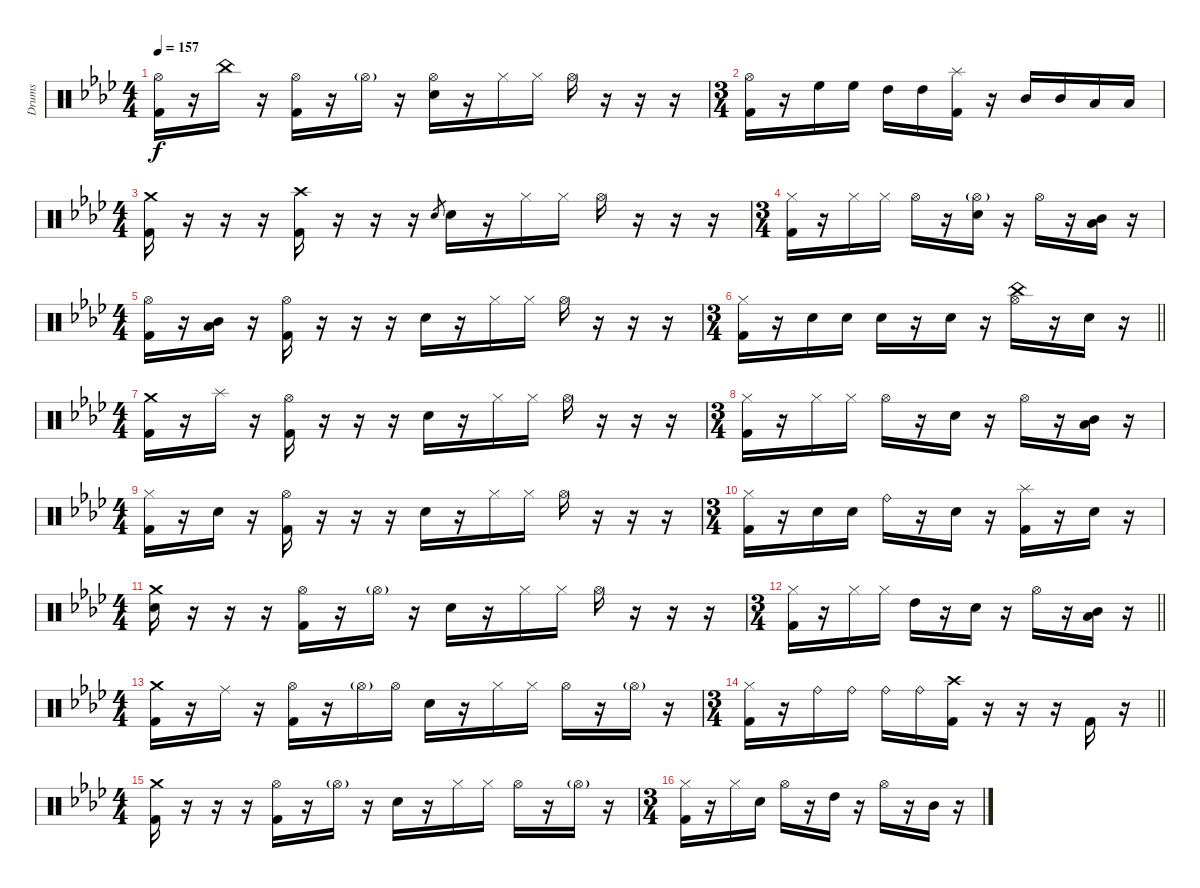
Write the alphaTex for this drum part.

\bracketExtendMode groupsimilarinstruments
\otherSystemsTrackNameOrientation horizontal
\track ("Guyot Begin-Benoit" "Drums") {instrument percussion}
\staff {score}
\articulation defaults
\ts (4 4)
\beaming (8 2 2 2 2)
\tempo 157
\clef neutral
\ks ab
("Hi-Hat (open)"{acc forcenatural} "Kick (hit) 2"{acc forcenatural}).16{dy f beam Down} r.16{beam Down} "China (hit)"{acc forcenatural}.16{beam Down} r.16{beam Down} ("Hi-Hat (open)"{acc forcenatural} "Kick (hit) 2"{acc forcenatural}).16{beam Down} r.16{beam Down} "Hi-Hat (open)"{g acc forcenatural}.16{beam Down} r.16{beam Down} ("Hi-Hat (open)"{acc forcenatural} "Snare (hit) 2"{acc forcenatural}).16{beam Down} r.16{beam Down} "Hi-Hat (closed)"{acc forcenatural}.16{beam Down} "Hi-Hat (closed)"{acc forcenatural}.16{beam Down} "Hi-Hat (open)"{acc forcenatural}.16{beam Down} r.16{beam Down} r.16{beam Down} r.16{beam Down} |
\ts (3 4)
\beaming (8 2 2 2 2)
("Hi-Hat (open)"{acc forcenatural} "Kick (hit) 2"{acc forcenatural}).16{beam Down} r.16{beam Down} "High Floor Tom (hit)"{acc forcenatural}.16{beam Down} "High Floor Tom (hit)"{acc forcenatural}.16{beam Down} "High Tom (hit)"{acc forcenatural}.16{beam Down} "High Tom (hit)"{acc forcenatural}.16{beam Down} ("Splash (hit)"{acc forcenatural} "Kick (hit) 2"{acc forcenatural}).16{beam Down} r.16{beam Down} "Mid Tom (hit)"{acc forcenatural}.16{beam Up} "Mid Tom (hit)"{acc forcenatural}.16{beam Up} "Low Tom (hit)"{acc forcenatural}.16{beam Up} "Low Tom (hit)"{acc forcenatural}.16{beam Up} |
\ts (4 4)
\beaming (8 2 2 2 2)
("Crash medium (hit)"{acc forcenatural} "Kick (hit) 2"{acc forcenatural}).16{beam Down} r.16{beam Down} r.16{beam Down} r.16{beam Down} ("Crash high (hit)"{acc forcenatural} "Kick (hit) 2"{acc forcenatural}).16{beam Down} r.16{beam Down} r.16{beam Down} r.16{beam Down} "Snare (hit) 2"{acc forcenatural}.8{gr beam Up} "Snare (hit) 2"{acc forcenatural}.16{beam Down} r.16{beam Down} "Hi-Hat (closed)"{acc forcenatural}.16{beam Down} "Hi-Hat (closed)"{acc forcenatural}.16{beam Down} "Hi-Hat (open)"{acc forcenatural}.16{beam Down} r.16{beam Down} r.16{beam Down} r.16{beam Down} |
\ts (3 4)
\beaming (8 2 2 2 2)
("Hi-Hat (closed)"{acc forcenatural} "Kick (hit) 2"{acc forcenatural}).16{beam Down} r.16{beam Down} "Hi-Hat (closed)"{acc forcenatural}.16{beam Down} "Hi-Hat (closed)"{acc forcenatural}.16{beam Down} "Hi-Hat (open)"{acc forcenatural}.16{beam Down} r.16{beam Down} ("Hi-Hat (open)"{g acc forcenatural} "Snare (hit) 2"{acc forcenatural}).16{beam Down} r.16{beam Down} "Hi-Hat (open)"{acc forcenatural}.16{beam Down} r.16{beam Down} ("Mid Tom (hit)"{acc forcenatural} "Low Tom (hit)"{acc forcenatural}).16{beam Down} r.16{beam Down} |
\ts (4 4)
\beaming (8 2 2 2 2)
("Hi-Hat (open)"{acc forcenatural} "Kick (hit) 2"{acc forcenatural}).16{beam Down} r.16{beam Down} ("Low Tom (hit)"{acc forcenatural} "Mid Tom (hit)"{acc forcenatural}).16{beam Down} r.16{beam Down} ("Hi-Hat (open)"{acc forcenatural} "Kick (hit) 2"{acc forcenatural}).16{beam Down} r.16{beam Down} r.16{beam Down} r.16{beam Down} "Snare (hit) 2"{acc forcenatural}.16{beam Down} r.16{beam Down} "Hi-Hat (closed)"{acc forcenatural}.16{beam Down} "Hi-Hat (closed)"{acc forcenatural}.16{beam Down} "Hi-Hat (open)"{acc forcenatural}.16{beam Down} r.16{beam Down} r.16{beam Down} r.16{beam Down} |
\ts (3 4)
\beaming (8 2 2 2 2)
\barLineRight lightlight
("Hi-Hat (closed)"{acc forcenatural} "Kick (hit) 2"{acc forcenatural}).16{beam Down} r.16{beam Down} "Snare (hit) 2"{acc forcenatural}.16{beam Down} "Snare (hit) 2"{acc forcenatural}.16{beam Down} "Snare (hit) 2"{acc forcenatural}.16{beam Down} r.16{beam Down} "Snare (hit) 2"{acc forcenatural}.16{beam Down} r.16{beam Down} ("Hi-Hat (open)"{acc forcenatural} "China (hit)"{acc forcenatural}).16{beam Down} r.16{beam Down} "Snare (hit) 2"{acc forcenatural}.16{beam Down} r.16{beam Down} |
\ts (4 4)
\beaming (8 2 2 2 2)
\section ("" "")
("Crash medium (hit)"{acc forcenatural} "Kick (hit) 2"{acc forcenatural}).16{beam Down} r.16{beam Down} "Splash (hit)"{acc forcenatural}.16{beam Down} r.16{beam Down} ("Hi-Hat (open)"{acc forcenatural} "Kick (hit) 2"{acc forcenatural}).16{beam Down} r.16{beam Down} r.16{beam Down} r.16{beam Down} "Snare (hit) 2"{acc forcenatural}.16{beam Down} r.16{beam Down} "Hi-Hat (closed)"{acc forcenatural}.16{beam Down} "Hi-Hat (closed)"{acc forcenatural}.16{beam Down} "Hi-Hat (open)"{acc forcenatural}.16{beam Down} r.16{beam Down} r.16{beam Down} r.16{beam Down} |
\ts (3 4)
\beaming (8 2 2 2 2)
("Hi-Hat (closed)"{acc forcenatural} "Kick (hit) 2"{acc forcenatural}).16{beam Down} r.16{beam Down} "Hi-Hat (closed)"{acc forcenatural}.16{beam Down} "Hi-Hat (closed)"{acc forcenatural}.16{beam Down} "Hi-Hat (open)"{acc forcenatural}.16{beam Down} r.16{beam Down} "Snare (hit) 2"{acc forcenatural}.16{beam Down} r.16{beam Down} "Hi-Hat (open)"{acc forcenatural}.16{beam Down} r.16{beam Down} ("Mid Tom (hit)"{acc forcenatural} "Low Tom (hit)"{acc forcenatural}).16{beam Down} r.16{beam Down} |
\ts (4 4)
\beaming (8 2 2 2 2)
("Hi-Hat (closed)"{acc forcenatural} "Kick (hit) 2"{acc forcenatural}).16{beam Down} r.16{beam Down} "Snare (hit) 2"{acc forcenatural}.16{beam Down} r.16{beam Down} ("Hi-Hat (open)"{acc forcenatural} "Kick (hit) 2"{acc forcenatural}).16{beam Down} r.16{beam Down} r.16{beam Down} r.16{beam Down} "Snare (hit) 2"{acc forcenatural}.16{beam Down} r.16{beam Down} "Hi-Hat (closed)"{acc forcenatural}.16{beam Down} "Hi-Hat (closed)"{acc forcenatural}.16{beam Down} "Hi-Hat (open)"{acc forcenatural}.16{beam Down} r.16{beam Down} r.16{beam Down} r.16{beam Down} |
\ts (3 4)
\beaming (8 2 2 2 2)
("Hi-Hat (closed)"{acc forcenatural} "Kick (hit) 2"{acc forcenatural}).16{beam Down} r.16{beam Down} "Snare (hit) 2"{acc forcenatural}.16{beam Down} "Snare (hit) 2"{acc forcenatural}.16{beam Down} "Ride (bell)"{acc forcenatural}.16{beam Down} r.16{beam Down} "Snare (hit) 2"{acc forcenatural}.16{beam Down} r.16{beam Down} ("Splash (hit)"{acc forcenatural} "Kick (hit) 2"{acc forcenatural}).16{beam Down} r.16{beam Down} "Snare (hit) 2"{acc forcenatural}.16{beam Down} r.16{beam Down} |
\ts (4 4)
\beaming (8 2 2 2 2)
("Crash medium (hit)"{acc forcenatural} "Snare (hit) 2"{acc forcenatural}).16{beam Down} r.16{beam Down} r.16{beam Down} r.16{beam Down} ("Hi-Hat (open)"{acc forcenatural} "Kick (hit) 2"{acc forcenatural}).16{beam Down} r.16{beam Down} "Hi-Hat (open)"{g acc forcenatural}.16{beam Down} r.16{beam Down} "Snare (hit) 2"{acc forcenatural}.16{beam Down} r.16{beam Down} "Hi-Hat (closed)"{acc forcenatural}.16{beam Down} "Hi-Hat (closed)"{acc forcenatural}.16{beam Down} "Hi-Hat (open)"{acc forcenatural}.16{beam Down} r.16{beam Down} r.16{beam Down} r.16{beam Down} |
\ts (3 4)
\beaming (8 2 2 2 2)
\barLineRight lightlight
("Hi-Hat (closed)"{acc forcenatural} "Kick (hit) 2"{acc forcenatural}).16{beam Down} r.16{beam Down} "Hi-Hat (closed)"{acc forcenatural}.16{beam Down} "Hi-Hat (closed)"{acc forcenatural}.16{beam Down} "High Tom (hit)"{acc forcenatural}.16{beam Down} r.16{beam Down} "Snare (hit) 2"{acc forcenatural}.16{beam Down} r.16{beam Down} "Hi-Hat (open)"{acc forcenatural}.16{beam Down} r.16{beam Down} ("Mid Tom (hit)"{acc forcenatural} "Low Tom (hit)"{acc forcenatural}).16{beam Down} r.16{beam Down} |
\ts (4 4)
\beaming (8 2 2 2 2)
("Crash medium (hit)"{acc forcenatural} "Kick (hit) 2"{acc forcenatural}).16{beam Down} r.16{beam Down} "Ride (middle)"{acc forcenatural}.16{beam Down} r.16{beam Down} ("Hi-Hat (open)"{acc forcenatural} "Kick (hit) 2"{acc forcenatural}).16{beam Down} r.16{beam Down} "Hi-Hat (open)"{g acc forcenatural}.16{beam Down} "Hi-Hat (open)"{acc forcenatural}.16{beam Down} "Snare (hit) 2"{acc forcenatural}.16{beam Down} r.16{beam Down} "Hi-Hat (closed)"{acc forcenatural}.16{beam Down} "Hi-Hat (closed)"{acc forcenatural}.16{beam Down} "Hi-Hat (open)"{acc forcenatural}.16{beam Down} r.16{beam Down} "Hi-Hat (open)"{g acc forcenatural}.16{beam Down} r.16{beam Down} |
\ts (3 4)
\beaming (8 2 2 2 2)
\barLineRight lightlight
("Hi-Hat (closed)"{acc forcenatural} "Kick (hit) 2"{acc forcenatural}).16{beam Down} r.16{beam Down} "Ride (bell)"{acc forcenatural}.16{beam Down} "Ride (bell)"{acc forcenatural}.16{beam Down} "Ride (bell)"{acc forcenatural}.16{beam Down} "Ride (bell)"{acc forcenatural}.16{beam Down} ("Crash high (hit)"{acc forcenatural} "Kick (hit) 2"{acc forcenatural}).16{beam Down} r.16{beam Down} r.16{beam Down} r.16{beam Down} "Kick (hit) 2"{acc forcenatural}.16{beam Up} r.16{beam Up} |
\ts (4 4)
\beaming (8 2 2 2 2)
\section ("" "")
("Crash medium (hit)"{acc forcenatural} "Kick (hit) 2"{acc forcenatural}).16{beam Down} r.16{beam Down} r.16{beam Down} r.16{beam Down} ("Hi-Hat (open)"{acc forcenatural} "Kick (hit) 2"{acc forcenatural}).16{beam Down} r.16{beam Down} "Hi-Hat (open)"{g acc forcenatural}.16{beam Down} r.16{beam Down} "Snare (hit) 2"{acc forcenatural}.16{beam Down} r.16{beam Down} "Hi-Hat (closed)"{acc forcenatural}.16{beam Down} "Hi-Hat (closed)"{acc forcenatural}.16{beam Down} "Hi-Hat (open)"{acc forcenatural}.16{beam Down} r.16{beam Down} "Hi-Hat (open)"{g acc forcenatural}.16{beam Down} r.16{beam Down} |
\ts (3 4)
\beaming (8 2 2 2 2)
("Hi-Hat (closed)"{acc forcenatural} "Kick (hit) 2"{acc forcenatural}).16{beam Down} r.16{beam Down} "Hi-Hat (closed)"{acc forcenatural}.16{beam Down} "Snare (hit) 2"{acc forcenatural}.16{beam Down} "Hi-Hat (open)"{acc forcenatural}.16{beam Down} r.16{beam Down} "High Tom (hit)"{acc forcenatural}.16{beam Down} r.16{beam Down} "Hi-Hat (open)"{acc forcenatural}.16{beam Down} r.16{beam Down} "Mid Tom (hit)"{acc forcenatural}.16{beam Down} r.16{beam Down}
